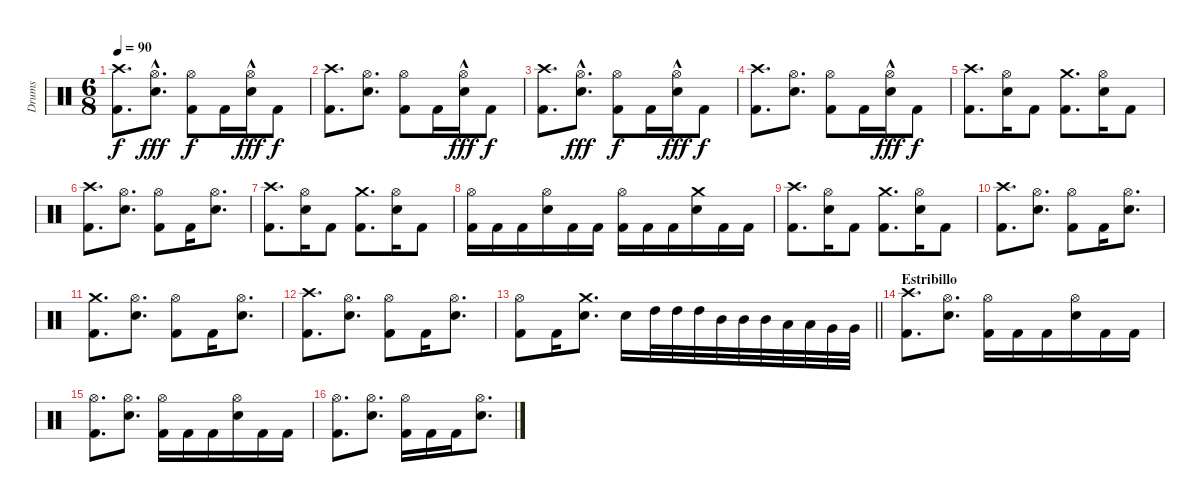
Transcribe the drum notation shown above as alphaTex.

\track ("Drums" "Drums") {instrument percussion}
\staff {score}
\articulation defaults
\ts (6 8)
\tempo 90
\clef neutral
\ks c
("Kick (hit) 2" "Crash high (hit)").8{d dy f} ("Electric Snare (hit)"{hac} "Hi-Hat (open)").8{d dy fff} ("Kick (hit) 2" "Hi-Hat (open)").8{dy f} "Kick (hit) 2".16 ("Electric Snare (hit)"{hac} "Hi-Hat (open)").16{dy fff} "Kick (hit) 2".8{dy f} |
("Kick (hit) 2" "Crash high (hit)").8{d} ("Electric Snare (hit)" "Hi-Hat (open)").8{d} ("Kick (hit) 2" "Hi-Hat (open)").8 "Kick (hit) 2".16 ("Electric Snare (hit)"{hac} "Hi-Hat (open)").16{dy fff} "Kick (hit) 2".8{dy f} |
("Kick (hit) 2" "Crash high (hit)").8{d} ("Electric Snare (hit)"{hac} "Hi-Hat (open)").8{d dy fff} ("Kick (hit) 2" "Hi-Hat (open)").8{dy f} "Kick (hit) 2".16 ("Electric Snare (hit)"{hac} "Hi-Hat (open)").16{dy fff} "Kick (hit) 2".8{dy f} |
("Kick (hit) 2" "Crash high (hit)").8{d} ("Electric Snare (hit)" "Hi-Hat (open)").8{d} ("Kick (hit) 2" "Hi-Hat (open)").8 "Kick (hit) 2".16 ("Electric Snare (hit)"{hac} "Hi-Hat (open)").16{dy fff} "Kick (hit) 2".8{dy f} |
("Kick (hit) 2" "Crash high (hit)").8{d} ("Electric Snare (hit)" "Hi-Hat (open)").16 "Kick (hit) 2".8 ("Kick (hit) 2" "Crash medium (hit)").8{d} ("Electric Snare (hit)" "Hi-Hat (open)").16 "Kick (hit) 2".8 |
("Kick (hit) 2" "Crash high (hit)").8{d} ("Electric Snare (hit)" "Hi-Hat (open)").8{d} ("Kick (hit) 2" "Hi-Hat (open)").8 "Kick (hit) 2".16 ("Electric Snare (hit)" "Hi-Hat (open)").8{d} |
("Kick (hit) 2" "Crash high (hit)").8{d} ("Electric Snare (hit)" "Hi-Hat (open)").16 "Kick (hit) 2".8 ("Kick (hit) 2" "Crash medium (hit)").8{d} ("Electric Snare (hit)" "Hi-Hat (open)").16 "Kick (hit) 2".8 |
("Kick (hit) 2" "Hi-Hat (open)").16 "Kick (hit) 2".16 "Kick (hit) 2".16 ("Electric Snare (hit)" "Hi-Hat (open)").16 "Kick (hit) 2".16 "Kick (hit) 2".16 ("Kick (hit) 2" "Hi-Hat (open)").16 "Kick (hit) 2".16 "Kick (hit) 2".16 ("Electric Snare (hit)" "Crash medium (hit)").16 "Kick (hit) 2".16 "Kick (hit) 2".16 |
("Kick (hit) 2" "Crash high (hit)").8{d} ("Electric Snare (hit)" "Hi-Hat (open)").16 "Kick (hit) 2".8 ("Kick (hit) 2" "Crash medium (hit)").8{d} ("Electric Snare (hit)" "Hi-Hat (open)").16 "Kick (hit) 2".8 |
("Kick (hit) 2" "Crash high (hit)").8{d} ("Electric Snare (hit)" "Hi-Hat (open)").8{d} ("Kick (hit) 2" "Hi-Hat (open)").8 "Kick (hit) 2".16 ("Electric Snare (hit)" "Hi-Hat (open)").8{d} |
("Kick (hit) 2" "Crash medium (hit)").8{d} ("Electric Snare (hit)" "Hi-Hat (open)").8{d} ("Kick (hit) 2" "Hi-Hat (open)").8 "Kick (hit) 2".16 ("Electric Snare (hit)" "Hi-Hat (open)").8{d} |
("Kick (hit) 2" "Crash high (hit)").8{d} ("Electric Snare (hit)" "Hi-Hat (open)").8{d} ("Kick (hit) 2" "Hi-Hat (open)").8 "Kick (hit) 2".16 ("Electric Snare (hit)" "Hi-Hat (open)").8{d} |
\barLineRight lightlight
("Kick (hit) 2" "Hi-Hat (open)").8 "Kick (hit) 2".16 ("Electric Snare (hit)" "Crash medium (hit)").8{d} "Electric Snare (hit)".16 "High Tom (hit)".32 "High Tom (hit)".32 "High Tom (hit)".32 "Mid Tom (hit)".32 "Mid Tom (hit)".32 "Mid Tom (hit)".32 "Low Tom (hit)".32 "Low Tom (hit)".32 "Very Low Tom (hit)".32 "Very Low Tom (hit)".32 |
\section ("" "Estribillo")
("Kick (hit) 2" "Crash high (hit)").8{d} ("Electric Snare (hit)" "Hi-Hat (open)").8{d} ("Kick (hit) 2" "Hi-Hat (open)").16 "Kick (hit) 2".16 "Kick (hit) 2".16 ("Electric Snare (hit)" "Hi-Hat (open)").16 "Kick (hit) 2".16 "Kick (hit) 2".16 |
("Kick (hit) 2" "Hi-Hat (open)").8{d} ("Electric Snare (hit)" "Hi-Hat (open)").8{d} ("Kick (hit) 2" "Hi-Hat (open)").16 "Kick (hit) 2".16 "Kick (hit) 2".16 ("Electric Snare (hit)" "Hi-Hat (open)").16 "Kick (hit) 2".16 "Kick (hit) 2".16 |
("Kick (hit) 2" "Hi-Hat (open)").8{d} ("Electric Snare (hit)" "Hi-Hat (open)").8{d} ("Kick (hit) 2" "Hi-Hat (open)").16 "Kick (hit) 2".16 "Kick (hit) 2".16 ("Electric Snare (hit)" "Hi-Hat (open)").8{d}
